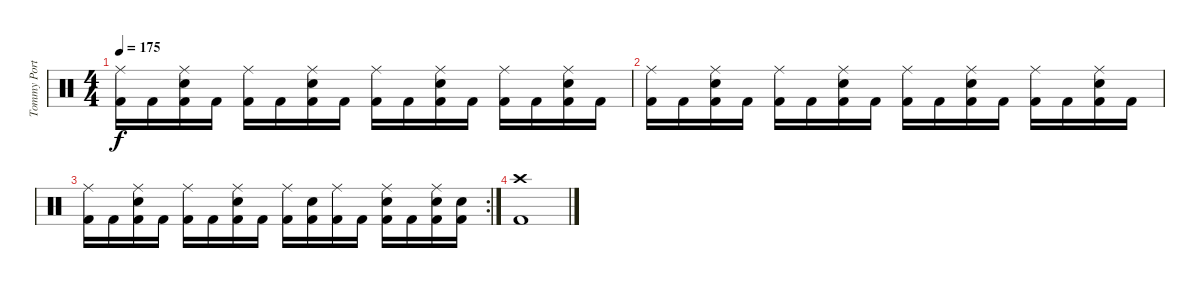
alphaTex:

\track ("Tommy Portimo" "Tommy Port") {instrument percussion}
\staff {score}
\articulation defaults
\ts (4 4)
\tempo 175
\clef neutral
\ks c
("Ride (middle)" "Kick (hit) 2").16{dy f} "Kick (hit) 2".16 ("Ride (middle)" "Electric Snare (hit)" "Kick (hit) 2").16 "Kick (hit) 2".16 ("Ride (middle)" "Kick (hit) 2").16 "Kick (hit) 2".16 ("Ride (middle)" "Electric Snare (hit)" "Kick (hit) 2").16 "Kick (hit) 2".16 ("Ride (middle)" "Kick (hit) 2").16 "Kick (hit) 2".16 ("Ride (middle)" "Electric Snare (hit)" "Kick (hit) 2").16 "Kick (hit) 2".16 ("Ride (middle)" "Kick (hit) 2").16 "Kick (hit) 2".16 ("Ride (middle)" "Electric Snare (hit)" "Kick (hit) 2").16 "Kick (hit) 2".16 |
("Ride (middle)" "Kick (hit) 2").16 "Kick (hit) 2".16 ("Ride (middle)" "Electric Snare (hit)" "Kick (hit) 2").16 "Kick (hit) 2".16 ("Ride (middle)" "Kick (hit) 2").16 "Kick (hit) 2".16 ("Ride (middle)" "Electric Snare (hit)" "Kick (hit) 2").16 "Kick (hit) 2".16 ("Ride (middle)" "Kick (hit) 2").16 "Kick (hit) 2".16 ("Ride (middle)" "Electric Snare (hit)" "Kick (hit) 2").16 "Kick (hit) 2".16 ("Ride (middle)" "Kick (hit) 2").16 "Kick (hit) 2".16 ("Ride (middle)" "Electric Snare (hit)" "Kick (hit) 2").16 "Kick (hit) 2".16 |
\rc 2
("Ride (middle)" "Kick (hit) 2").16 "Kick (hit) 2".16 ("Ride (middle)" "Electric Snare (hit)" "Kick (hit) 2").16 "Kick (hit) 2".16 ("Ride (middle)" "Kick (hit) 2").16 "Kick (hit) 2".16 ("Ride (middle)" "Electric Snare (hit)" "Kick (hit) 2").16 "Kick (hit) 2".16 ("Ride (middle)" "Kick (hit) 2").16 ("Electric Snare (hit)" "Kick (hit) 2").16 ("Ride (middle)" "Kick (hit) 2").16 "Kick (hit) 2".16 ("Ride (middle)" "Electric Snare (hit)" "Kick (hit) 2").16 "Kick (hit) 2".16 ("Ride (middle)" "Electric Snare (hit)" "Kick (hit) 2").16 ("Electric Snare (hit)" "Kick (hit) 2").16 |
("Crash high (hit)" "Kick (hit) 2").1{volume 0}
